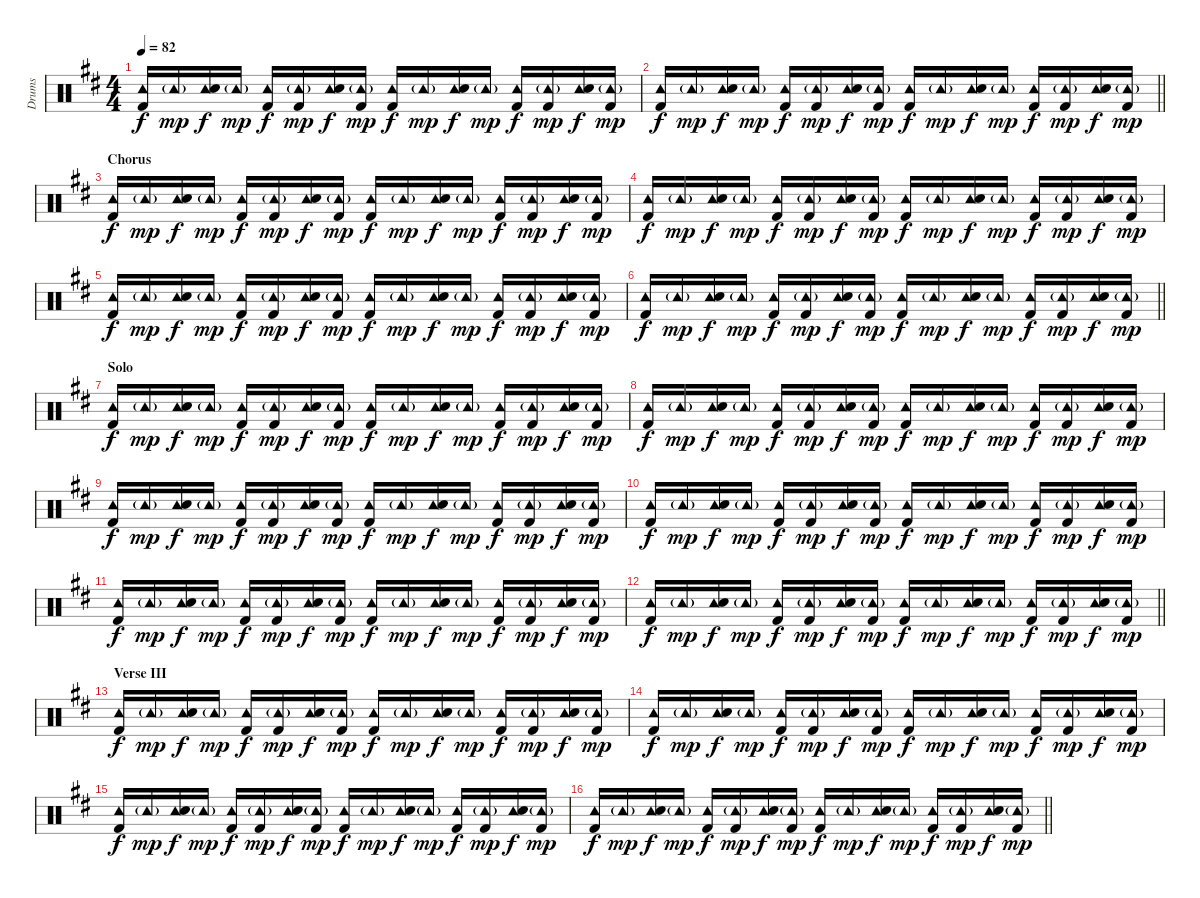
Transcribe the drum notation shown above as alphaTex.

\track ("Drums" "Drums") {instrument percussion}
\staff {score}
\articulation defaults
\ts (4 4)
\tempo 82
\clef neutral
\ks d
("Tambourine (hit)" "Kick (hit) 2").16{dy f} "Tambourine (hit)"{g}.16{dy mp} ("Tambourine (hit)" "Snare (hit) 2").16{dy f} "Tambourine (hit)"{g}.16{dy mp} ("Tambourine (hit)" "Kick (hit) 2").16{dy f} ("Tambourine (hit)"{g} "Kick (hit) 2").16{dy mp} ("Tambourine (hit)" "Snare (hit) 2").16{dy f} ("Tambourine (hit)"{g} "Kick (hit) 2").16{dy mp} ("Tambourine (hit)" "Kick (hit) 2").16{dy f} "Tambourine (hit)"{g}.16{dy mp} ("Tambourine (hit)" "Snare (hit) 2").16{dy f} "Tambourine (hit)"{g}.16{dy mp} ("Tambourine (hit)" "Kick (hit) 2").16{dy f} ("Tambourine (hit)"{g} "Kick (hit) 2").16{dy mp} ("Tambourine (hit)" "Snare (hit) 2").16{dy f} ("Tambourine (hit)"{g} "Kick (hit) 2").16{dy mp} |
\barLineRight lightlight
("Tambourine (hit)" "Kick (hit) 2").16{dy f} "Tambourine (hit)"{g}.16{dy mp} ("Tambourine (hit)" "Snare (hit) 2").16{dy f} "Tambourine (hit)"{g}.16{dy mp} ("Tambourine (hit)" "Kick (hit) 2").16{dy f} ("Tambourine (hit)"{g} "Kick (hit) 2").16{dy mp} ("Tambourine (hit)" "Snare (hit) 2").16{dy f} ("Tambourine (hit)"{g} "Kick (hit) 2").16{dy mp} ("Tambourine (hit)" "Kick (hit) 2").16{dy f} "Tambourine (hit)"{g}.16{dy mp} ("Tambourine (hit)" "Snare (hit) 2").16{dy f} "Tambourine (hit)"{g}.16{dy mp} ("Tambourine (hit)" "Kick (hit) 2").16{dy f} ("Tambourine (hit)"{g} "Kick (hit) 2").16{dy mp} ("Tambourine (hit)" "Snare (hit) 2").16{dy f} ("Tambourine (hit)"{g} "Kick (hit) 2").16{dy mp} |
\section ("" "Chorus")
("Tambourine (hit)" "Kick (hit) 2").16{dy f} "Tambourine (hit)"{g}.16{dy mp} ("Tambourine (hit)" "Snare (hit) 2").16{dy f} "Tambourine (hit)"{g}.16{dy mp} ("Tambourine (hit)" "Kick (hit) 2").16{dy f} ("Tambourine (hit)"{g} "Kick (hit) 2").16{dy mp} ("Tambourine (hit)" "Snare (hit) 2").16{dy f} ("Tambourine (hit)"{g} "Kick (hit) 2").16{dy mp} ("Tambourine (hit)" "Kick (hit) 2").16{dy f} "Tambourine (hit)"{g}.16{dy mp} ("Tambourine (hit)" "Snare (hit) 2").16{dy f} "Tambourine (hit)"{g}.16{dy mp} ("Tambourine (hit)" "Kick (hit) 2").16{dy f} ("Tambourine (hit)"{g} "Kick (hit) 2").16{dy mp} ("Tambourine (hit)" "Snare (hit) 2").16{dy f} ("Tambourine (hit)"{g} "Kick (hit) 2").16{dy mp} |
("Tambourine (hit)" "Kick (hit) 2").16{dy f} "Tambourine (hit)"{g}.16{dy mp} ("Tambourine (hit)" "Snare (hit) 2").16{dy f} "Tambourine (hit)"{g}.16{dy mp} ("Tambourine (hit)" "Kick (hit) 2").16{dy f} ("Tambourine (hit)"{g} "Kick (hit) 2").16{dy mp} ("Tambourine (hit)" "Snare (hit) 2").16{dy f} ("Tambourine (hit)"{g} "Kick (hit) 2").16{dy mp} ("Tambourine (hit)" "Kick (hit) 2").16{dy f} "Tambourine (hit)"{g}.16{dy mp} ("Tambourine (hit)" "Snare (hit) 2").16{dy f} "Tambourine (hit)"{g}.16{dy mp} ("Tambourine (hit)" "Kick (hit) 2").16{dy f} ("Tambourine (hit)"{g} "Kick (hit) 2").16{dy mp} ("Tambourine (hit)" "Snare (hit) 2").16{dy f} ("Tambourine (hit)"{g} "Kick (hit) 2").16{dy mp} |
("Tambourine (hit)" "Kick (hit) 2").16{dy f} "Tambourine (hit)"{g}.16{dy mp} ("Tambourine (hit)" "Snare (hit) 2").16{dy f} "Tambourine (hit)"{g}.16{dy mp} ("Tambourine (hit)" "Kick (hit) 2").16{dy f} ("Tambourine (hit)"{g} "Kick (hit) 2").16{dy mp} ("Tambourine (hit)" "Snare (hit) 2").16{dy f} ("Tambourine (hit)"{g} "Kick (hit) 2").16{dy mp} ("Tambourine (hit)" "Kick (hit) 2").16{dy f} "Tambourine (hit)"{g}.16{dy mp} ("Tambourine (hit)" "Snare (hit) 2").16{dy f} "Tambourine (hit)"{g}.16{dy mp} ("Tambourine (hit)" "Kick (hit) 2").16{dy f} ("Tambourine (hit)"{g} "Kick (hit) 2").16{dy mp} ("Tambourine (hit)" "Snare (hit) 2").16{dy f} ("Tambourine (hit)"{g} "Kick (hit) 2").16{dy mp} |
\barLineRight lightlight
("Tambourine (hit)" "Kick (hit) 2").16{dy f} "Tambourine (hit)"{g}.16{dy mp} ("Tambourine (hit)" "Snare (hit) 2").16{dy f} "Tambourine (hit)"{g}.16{dy mp} ("Tambourine (hit)" "Kick (hit) 2").16{dy f} ("Tambourine (hit)"{g} "Kick (hit) 2").16{dy mp} ("Tambourine (hit)" "Snare (hit) 2").16{dy f} ("Tambourine (hit)"{g} "Kick (hit) 2").16{dy mp} ("Tambourine (hit)" "Kick (hit) 2").16{dy f} "Tambourine (hit)"{g}.16{dy mp} ("Tambourine (hit)" "Snare (hit) 2").16{dy f} "Tambourine (hit)"{g}.16{dy mp} ("Tambourine (hit)" "Kick (hit) 2").16{dy f} ("Tambourine (hit)"{g} "Kick (hit) 2").16{dy mp} ("Tambourine (hit)" "Snare (hit) 2").16{dy f} ("Tambourine (hit)"{g} "Kick (hit) 2").16{dy mp} |
\section ("" "Solo")
("Tambourine (hit)" "Kick (hit) 2").16{dy f} "Tambourine (hit)"{g}.16{dy mp} ("Tambourine (hit)" "Snare (hit) 2").16{dy f} "Tambourine (hit)"{g}.16{dy mp} ("Tambourine (hit)" "Kick (hit) 2").16{dy f} ("Tambourine (hit)"{g} "Kick (hit) 2").16{dy mp} ("Tambourine (hit)" "Snare (hit) 2").16{dy f} ("Tambourine (hit)"{g} "Kick (hit) 2").16{dy mp} ("Tambourine (hit)" "Kick (hit) 2").16{dy f} "Tambourine (hit)"{g}.16{dy mp} ("Tambourine (hit)" "Snare (hit) 2").16{dy f} "Tambourine (hit)"{g}.16{dy mp} ("Tambourine (hit)" "Kick (hit) 2").16{dy f} ("Tambourine (hit)"{g} "Kick (hit) 2").16{dy mp} ("Tambourine (hit)" "Snare (hit) 2").16{dy f} ("Tambourine (hit)"{g} "Kick (hit) 2").16{dy mp} |
("Tambourine (hit)" "Kick (hit) 2").16{dy f} "Tambourine (hit)"{g}.16{dy mp} ("Tambourine (hit)" "Snare (hit) 2").16{dy f} "Tambourine (hit)"{g}.16{dy mp} ("Tambourine (hit)" "Kick (hit) 2").16{dy f} ("Tambourine (hit)"{g} "Kick (hit) 2").16{dy mp} ("Tambourine (hit)" "Snare (hit) 2").16{dy f} ("Tambourine (hit)"{g} "Kick (hit) 2").16{dy mp} ("Tambourine (hit)" "Kick (hit) 2").16{dy f} "Tambourine (hit)"{g}.16{dy mp} ("Tambourine (hit)" "Snare (hit) 2").16{dy f} "Tambourine (hit)"{g}.16{dy mp} ("Tambourine (hit)" "Kick (hit) 2").16{dy f} ("Tambourine (hit)"{g} "Kick (hit) 2").16{dy mp} ("Tambourine (hit)" "Snare (hit) 2").16{dy f} ("Tambourine (hit)"{g} "Kick (hit) 2").16{dy mp} |
("Tambourine (hit)" "Kick (hit) 2").16{dy f} "Tambourine (hit)"{g}.16{dy mp} ("Tambourine (hit)" "Snare (hit) 2").16{dy f} "Tambourine (hit)"{g}.16{dy mp} ("Tambourine (hit)" "Kick (hit) 2").16{dy f} ("Tambourine (hit)"{g} "Kick (hit) 2").16{dy mp} ("Tambourine (hit)" "Snare (hit) 2").16{dy f} ("Tambourine (hit)"{g} "Kick (hit) 2").16{dy mp} ("Tambourine (hit)" "Kick (hit) 2").16{dy f} "Tambourine (hit)"{g}.16{dy mp} ("Tambourine (hit)" "Snare (hit) 2").16{dy f} "Tambourine (hit)"{g}.16{dy mp} ("Tambourine (hit)" "Kick (hit) 2").16{dy f} ("Tambourine (hit)"{g} "Kick (hit) 2").16{dy mp} ("Tambourine (hit)" "Snare (hit) 2").16{dy f} ("Tambourine (hit)"{g} "Kick (hit) 2").16{dy mp} |
("Tambourine (hit)" "Kick (hit) 2").16{dy f} "Tambourine (hit)"{g}.16{dy mp} ("Tambourine (hit)" "Snare (hit) 2").16{dy f} "Tambourine (hit)"{g}.16{dy mp} ("Tambourine (hit)" "Kick (hit) 2").16{dy f} ("Tambourine (hit)"{g} "Kick (hit) 2").16{dy mp} ("Tambourine (hit)" "Snare (hit) 2").16{dy f} ("Tambourine (hit)"{g} "Kick (hit) 2").16{dy mp} ("Tambourine (hit)" "Kick (hit) 2").16{dy f} "Tambourine (hit)"{g}.16{dy mp} ("Tambourine (hit)" "Snare (hit) 2").16{dy f} "Tambourine (hit)"{g}.16{dy mp} ("Tambourine (hit)" "Kick (hit) 2").16{dy f} ("Tambourine (hit)"{g} "Kick (hit) 2").16{dy mp} ("Tambourine (hit)" "Snare (hit) 2").16{dy f} ("Tambourine (hit)"{g} "Kick (hit) 2").16{dy mp} |
("Tambourine (hit)" "Kick (hit) 2").16{dy f} "Tambourine (hit)"{g}.16{dy mp} ("Tambourine (hit)" "Snare (hit) 2").16{dy f} "Tambourine (hit)"{g}.16{dy mp} ("Tambourine (hit)" "Kick (hit) 2").16{dy f} ("Tambourine (hit)"{g} "Kick (hit) 2").16{dy mp} ("Tambourine (hit)" "Snare (hit) 2").16{dy f} ("Tambourine (hit)"{g} "Kick (hit) 2").16{dy mp} ("Tambourine (hit)" "Kick (hit) 2").16{dy f} "Tambourine (hit)"{g}.16{dy mp} ("Tambourine (hit)" "Snare (hit) 2").16{dy f} "Tambourine (hit)"{g}.16{dy mp} ("Tambourine (hit)" "Kick (hit) 2").16{dy f} ("Tambourine (hit)"{g} "Kick (hit) 2").16{dy mp} ("Tambourine (hit)" "Snare (hit) 2").16{dy f} ("Tambourine (hit)"{g} "Kick (hit) 2").16{dy mp} |
\barLineRight lightlight
("Tambourine (hit)" "Kick (hit) 2").16{dy f} "Tambourine (hit)"{g}.16{dy mp} ("Tambourine (hit)" "Snare (hit) 2").16{dy f} "Tambourine (hit)"{g}.16{dy mp} ("Tambourine (hit)" "Kick (hit) 2").16{dy f} ("Tambourine (hit)"{g} "Kick (hit) 2").16{dy mp} ("Tambourine (hit)" "Snare (hit) 2").16{dy f} ("Tambourine (hit)"{g} "Kick (hit) 2").16{dy mp} ("Tambourine (hit)" "Kick (hit) 2").16{dy f} "Tambourine (hit)"{g}.16{dy mp} ("Tambourine (hit)" "Snare (hit) 2").16{dy f} "Tambourine (hit)"{g}.16{dy mp} ("Tambourine (hit)" "Kick (hit) 2").16{dy f} ("Tambourine (hit)"{g} "Kick (hit) 2").16{dy mp} ("Tambourine (hit)" "Snare (hit) 2").16{dy f} ("Tambourine (hit)"{g} "Kick (hit) 2").16{dy mp} |
\section ("" "Verse III")
("Tambourine (hit)" "Kick (hit) 2").16{dy f} "Tambourine (hit)"{g}.16{dy mp} ("Tambourine (hit)" "Snare (hit) 2").16{dy f} "Tambourine (hit)"{g}.16{dy mp} ("Tambourine (hit)" "Kick (hit) 2").16{dy f} ("Tambourine (hit)"{g} "Kick (hit) 2").16{dy mp} ("Tambourine (hit)" "Snare (hit) 2").16{dy f} ("Tambourine (hit)"{g} "Kick (hit) 2").16{dy mp} ("Tambourine (hit)" "Kick (hit) 2").16{dy f} "Tambourine (hit)"{g}.16{dy mp} ("Tambourine (hit)" "Snare (hit) 2").16{dy f} "Tambourine (hit)"{g}.16{dy mp} ("Tambourine (hit)" "Kick (hit) 2").16{dy f} ("Tambourine (hit)"{g} "Kick (hit) 2").16{dy mp} ("Tambourine (hit)" "Snare (hit) 2").16{dy f} ("Tambourine (hit)"{g} "Kick (hit) 2").16{dy mp} |
("Tambourine (hit)" "Kick (hit) 2").16{dy f} "Tambourine (hit)"{g}.16{dy mp} ("Tambourine (hit)" "Snare (hit) 2").16{dy f} "Tambourine (hit)"{g}.16{dy mp} ("Tambourine (hit)" "Kick (hit) 2").16{dy f} ("Tambourine (hit)"{g} "Kick (hit) 2").16{dy mp} ("Tambourine (hit)" "Snare (hit) 2").16{dy f} ("Tambourine (hit)"{g} "Kick (hit) 2").16{dy mp} ("Tambourine (hit)" "Kick (hit) 2").16{dy f} "Tambourine (hit)"{g}.16{dy mp} ("Tambourine (hit)" "Snare (hit) 2").16{dy f} "Tambourine (hit)"{g}.16{dy mp} ("Tambourine (hit)" "Kick (hit) 2").16{dy f} ("Tambourine (hit)"{g} "Kick (hit) 2").16{dy mp} ("Tambourine (hit)" "Snare (hit) 2").16{dy f} ("Tambourine (hit)"{g} "Kick (hit) 2").16{dy mp} |
("Tambourine (hit)" "Kick (hit) 2").16{dy f} "Tambourine (hit)"{g}.16{dy mp} ("Tambourine (hit)" "Snare (hit) 2").16{dy f} "Tambourine (hit)"{g}.16{dy mp} ("Tambourine (hit)" "Kick (hit) 2").16{dy f} ("Tambourine (hit)"{g} "Kick (hit) 2").16{dy mp} ("Tambourine (hit)" "Snare (hit) 2").16{dy f} ("Tambourine (hit)"{g} "Kick (hit) 2").16{dy mp} ("Tambourine (hit)" "Kick (hit) 2").16{dy f} "Tambourine (hit)"{g}.16{dy mp} ("Tambourine (hit)" "Snare (hit) 2").16{dy f} "Tambourine (hit)"{g}.16{dy mp} ("Tambourine (hit)" "Kick (hit) 2").16{dy f} ("Tambourine (hit)"{g} "Kick (hit) 2").16{dy mp} ("Tambourine (hit)" "Snare (hit) 2").16{dy f} ("Tambourine (hit)"{g} "Kick (hit) 2").16{dy mp} |
\barLineRight lightlight
("Tambourine (hit)" "Kick (hit) 2").16{dy f} "Tambourine (hit)"{g}.16{dy mp} ("Tambourine (hit)" "Snare (hit) 2").16{dy f} "Tambourine (hit)"{g}.16{dy mp} ("Tambourine (hit)" "Kick (hit) 2").16{dy f} ("Tambourine (hit)"{g} "Kick (hit) 2").16{dy mp} ("Tambourine (hit)" "Snare (hit) 2").16{dy f} ("Tambourine (hit)"{g} "Kick (hit) 2").16{dy mp} ("Tambourine (hit)" "Kick (hit) 2").16{dy f} "Tambourine (hit)"{g}.16{dy mp} ("Tambourine (hit)" "Snare (hit) 2").16{dy f} "Tambourine (hit)"{g}.16{dy mp} ("Tambourine (hit)" "Kick (hit) 2").16{dy f} ("Tambourine (hit)"{g} "Kick (hit) 2").16{dy mp} ("Tambourine (hit)" "Snare (hit) 2").16{dy f} ("Tambourine (hit)"{g} "Kick (hit) 2").16{dy mp}
